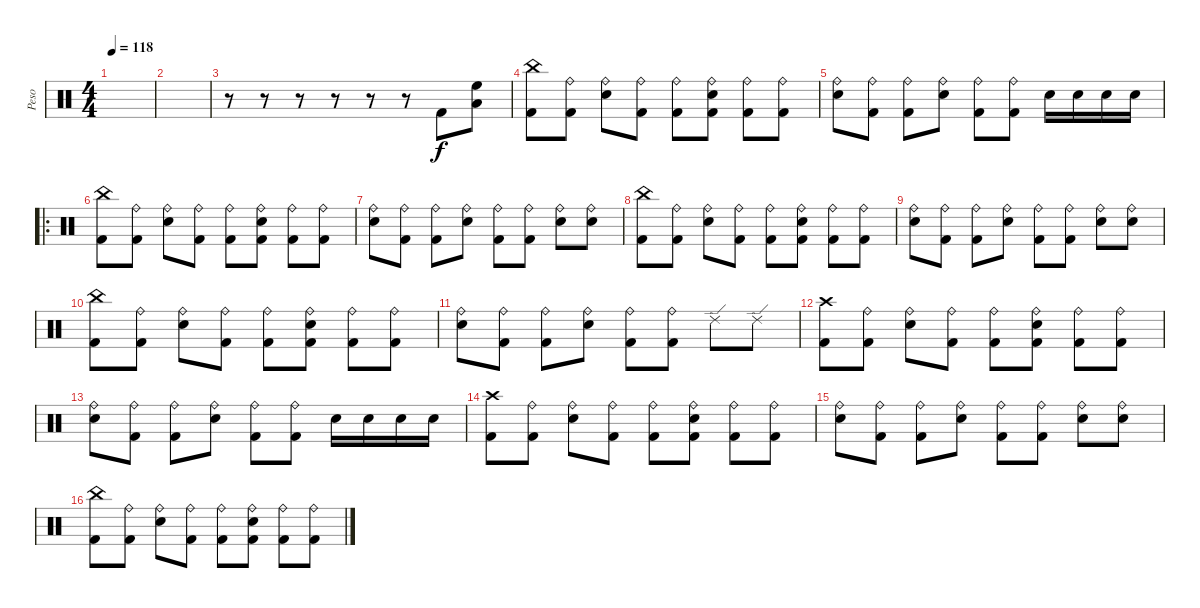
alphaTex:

\track ("Peso" "Peso") {instrument percussion}
\staff {score}
\articulation defaults
\ts (4 4)
\tempo 118
\clef neutral
\ks c
|
|
r.8 r.8 r.8 r.8 r.8 r.8 "Kick (hit) 2".8 ("High Floor Tom (hit)" "Low Floor Tom (hit)").8 |
("China (hit)" "Kick (hit) 2").8 ("Ride (bell)" "Kick (hit) 2").8 ("Ride (bell)" "Snare (hit) 2").8 ("Ride (bell)" "Kick (hit) 2").8 ("Ride (bell)" "Kick (hit) 2").8 ("Ride (bell)" "Snare (hit) 2" "Kick (hit) 2").8 ("Ride (bell)" "Kick (hit) 2").8 ("Ride (bell)" "Kick (hit) 2").8 |
("Ride (bell)" "Snare (hit) 2").8 ("Ride (bell)" "Kick (hit) 2").8 ("Ride (bell)" "Kick (hit) 2").8 ("Ride (bell)" "Snare (hit) 2").8 ("Ride (bell)" "Kick (hit) 2").8 ("Ride (bell)" "Kick (hit) 2").8 "Snare (hit) 2".16 "Snare (hit) 2".16 "Snare (hit) 2".16 "Snare (hit) 2".16 |
\ro
("China (hit)" "Kick (hit) 2").8 ("Ride (bell)" "Kick (hit) 2").8 ("Ride (bell)" "Snare (hit) 2").8 ("Ride (bell)" "Kick (hit) 2").8 ("Ride (bell)" "Kick (hit) 2").8 ("Ride (bell)" "Snare (hit) 2" "Kick (hit) 2").8 ("Ride (bell)" "Kick (hit) 2").8 ("Ride (bell)" "Kick (hit) 2").8 |
("Ride (bell)" "Snare (hit) 2").8 ("Ride (bell)" "Kick (hit) 2").8 ("Ride (bell)" "Kick (hit) 2").8 ("Ride (bell)" "Snare (hit) 2").8 ("Ride (bell)" "Kick (hit) 2").8 ("Ride (bell)" "Kick (hit) 2").8 ("Ride (bell)" "Snare (hit) 2").8 ("Ride (bell)" "Snare (hit) 2").8 |
("China (hit)" "Kick (hit) 2").8 ("Ride (bell)" "Kick (hit) 2").8 ("Ride (bell)" "Snare (hit) 2").8 ("Ride (bell)" "Kick (hit) 2").8 ("Ride (bell)" "Kick (hit) 2").8 ("Ride (bell)" "Snare (hit) 2" "Kick (hit) 2").8 ("Ride (bell)" "Kick (hit) 2").8 ("Ride (bell)" "Kick (hit) 2").8 |
("Ride (bell)" "Snare (hit) 2").8 ("Ride (bell)" "Kick (hit) 2").8 ("Ride (bell)" "Kick (hit) 2").8 ("Ride (bell)" "Snare (hit) 2").8 ("Ride (bell)" "Kick (hit) 2").8 ("Ride (bell)" "Kick (hit) 2").8 ("Ride (bell)" "Snare (hit) 2").8 ("Ride (bell)" "Snare (hit) 2").8 |
("China (hit)" "Kick (hit) 2").8 ("Ride (bell)" "Kick (hit) 2").8 ("Ride (bell)" "Snare (hit) 2").8 ("Ride (bell)" "Kick (hit) 2").8 ("Ride (bell)" "Kick (hit) 2").8 ("Ride (bell)" "Snare (hit) 2" "Kick (hit) 2").8 ("Ride (bell)" "Kick (hit) 2").8 ("Ride (bell)" "Kick (hit) 2").8 |
("Ride (bell)" "Snare (hit) 2").8 ("Ride (bell)" "Kick (hit) 2").8 ("Ride (bell)" "Kick (hit) 2").8 ("Ride (bell)" "Snare (hit) 2").8 ("Ride (bell)" "Kick (hit) 2").8 ("Ride (bell)" "Kick (hit) 2").8 "Ride (edge) 2".8 "Ride (edge) 2".8 |
("Crash high (hit)" "Kick (hit) 2").8 ("Ride (bell)" "Kick (hit) 2").8 ("Ride (bell)" "Snare (hit) 2").8 ("Ride (bell)" "Kick (hit) 2").8 ("Ride (bell)" "Kick (hit) 2").8 ("Ride (bell)" "Snare (hit) 2" "Kick (hit) 2").8 ("Ride (bell)" "Kick (hit) 2").8 ("Ride (bell)" "Kick (hit) 2").8 |
("Ride (bell)" "Snare (hit) 2").8 ("Ride (bell)" "Kick (hit) 2").8 ("Ride (bell)" "Kick (hit) 2").8 ("Ride (bell)" "Snare (hit) 2").8 ("Ride (bell)" "Kick (hit) 2").8 ("Ride (bell)" "Kick (hit) 2").8 "Snare (hit) 2".16 "Snare (hit) 2".16 "Snare (hit) 2".16 "Snare (hit) 2".16 |
("Crash high (hit)" "Kick (hit) 2").8 ("Ride (bell)" "Kick (hit) 2").8 ("Ride (bell)" "Snare (hit) 2").8 ("Ride (bell)" "Kick (hit) 2").8 ("Ride (bell)" "Kick (hit) 2").8 ("Ride (bell)" "Snare (hit) 2" "Kick (hit) 2").8 ("Ride (bell)" "Kick (hit) 2").8 ("Ride (bell)" "Kick (hit) 2").8 |
("Ride (bell)" "Snare (hit) 2").8 ("Ride (bell)" "Kick (hit) 2").8 ("Ride (bell)" "Kick (hit) 2").8 ("Ride (bell)" "Snare (hit) 2").8 ("Ride (bell)" "Kick (hit) 2").8 ("Ride (bell)" "Kick (hit) 2").8 ("Ride (bell)" "Snare (hit) 2").8 ("Ride (bell)" "Snare (hit) 2").8 |
("China (hit)" "Kick (hit) 2").8 ("Ride (bell)" "Kick (hit) 2").8 ("Ride (bell)" "Snare (hit) 2").8 ("Ride (bell)" "Kick (hit) 2").8 ("Ride (bell)" "Kick (hit) 2").8 ("Ride (bell)" "Snare (hit) 2" "Kick (hit) 2").8 ("Ride (bell)" "Kick (hit) 2").8 ("Ride (bell)" "Kick (hit) 2").8
